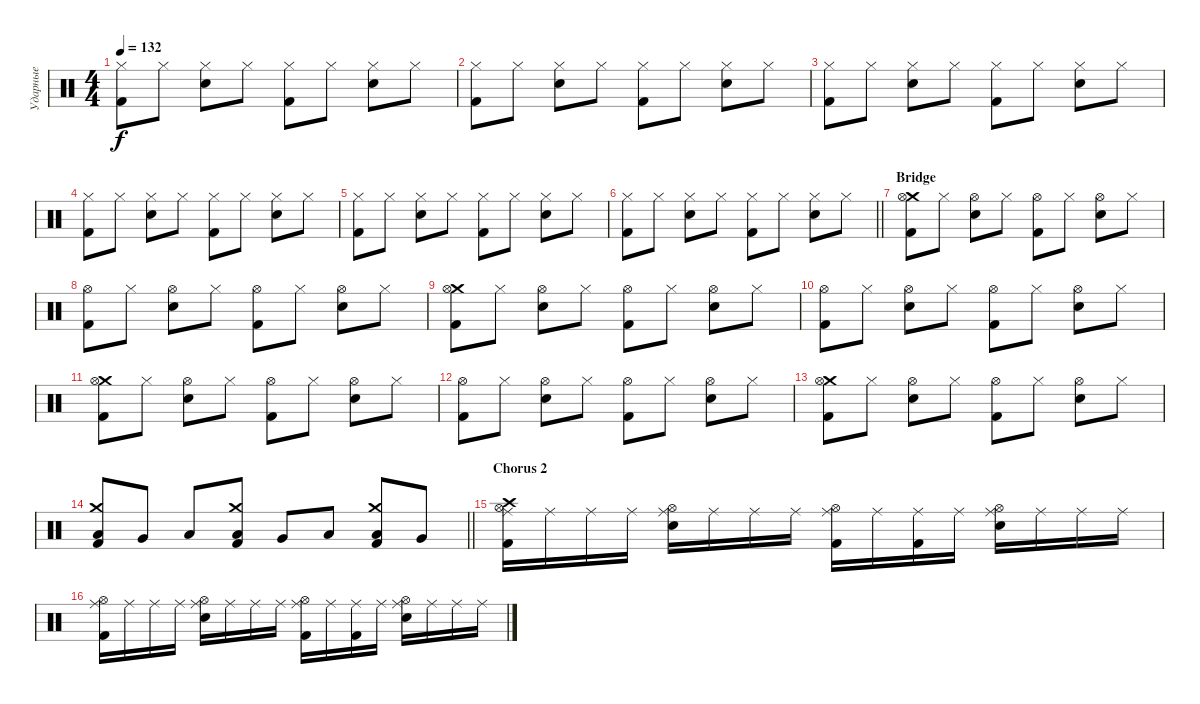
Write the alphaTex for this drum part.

\track ("Ударные" "Ударные") {instrument percussion}
\staff {score}
\articulation defaults
\ts (4 4)
\tempo 132
\clef neutral
\ks c
("Hi-Hat (closed)" "Kick (hit) 2").8{dy f} "Hi-Hat (closed)".8 ("Hi-Hat (closed)" "Snare (hit) 2").8 "Hi-Hat (closed)".8 ("Hi-Hat (closed)" "Kick (hit) 2").8 "Hi-Hat (closed)".8 ("Hi-Hat (closed)" "Snare (hit) 2").8 "Hi-Hat (closed)".8 |
("Hi-Hat (closed)" "Kick (hit) 2").8 "Hi-Hat (closed)".8 ("Hi-Hat (closed)" "Snare (hit) 2").8 "Hi-Hat (closed)".8 ("Hi-Hat (closed)" "Kick (hit) 2").8 "Hi-Hat (closed)".8 ("Hi-Hat (closed)" "Snare (hit) 2").8 "Hi-Hat (closed)".8 |
("Hi-Hat (closed)" "Kick (hit) 2").8 "Hi-Hat (closed)".8 ("Hi-Hat (closed)" "Snare (hit) 2").8 "Hi-Hat (closed)".8 ("Hi-Hat (closed)" "Kick (hit) 2").8 "Hi-Hat (closed)".8 ("Hi-Hat (closed)" "Snare (hit) 2").8 "Hi-Hat (closed)".8 |
("Hi-Hat (closed)" "Kick (hit) 2").8 "Hi-Hat (closed)".8 ("Hi-Hat (closed)" "Snare (hit) 2").8 "Hi-Hat (closed)".8 ("Hi-Hat (closed)" "Kick (hit) 2").8 "Hi-Hat (closed)".8 ("Hi-Hat (closed)" "Snare (hit) 2").8 "Hi-Hat (closed)".8 |
("Hi-Hat (closed)" "Kick (hit) 2").8 "Hi-Hat (closed)".8 ("Hi-Hat (closed)" "Snare (hit) 2").8 "Hi-Hat (closed)".8 ("Hi-Hat (closed)" "Kick (hit) 2").8 "Hi-Hat (closed)".8 ("Hi-Hat (closed)" "Snare (hit) 2").8 "Hi-Hat (closed)".8 |
\barLineRight lightlight
("Hi-Hat (closed)" "Kick (hit) 2").8 "Hi-Hat (closed)".8 ("Hi-Hat (closed)" "Snare (hit) 2").8 "Hi-Hat (closed)".8 ("Hi-Hat (closed)" "Kick (hit) 2").8 "Hi-Hat (closed)".8 ("Hi-Hat (closed)" "Snare (hit) 2").8 "Hi-Hat (closed)".8 |
\section ("" "Bridge")
("Crash medium (hit)" "Hi-Hat (open)" "Kick (hit) 2").8 "Hi-Hat (closed)".8 ("Hi-Hat (open)" "Snare (hit) 2").8 "Hi-Hat (closed)".8 ("Hi-Hat (open)" "Kick (hit) 2").8 "Hi-Hat (closed)".8 ("Hi-Hat (open)" "Snare (hit) 2").8 "Hi-Hat (closed)".8 |
("Hi-Hat (open)" "Kick (hit) 2").8 "Hi-Hat (closed)".8 ("Hi-Hat (open)" "Snare (hit) 2").8 "Hi-Hat (closed)".8 ("Hi-Hat (open)" "Kick (hit) 2").8 "Hi-Hat (closed)".8 ("Hi-Hat (open)" "Snare (hit) 2").8 "Hi-Hat (closed)".8 |
("Crash medium (hit)" "Hi-Hat (open)" "Kick (hit) 2").8 "Hi-Hat (closed)".8 ("Hi-Hat (open)" "Snare (hit) 2").8 "Hi-Hat (closed)".8 ("Hi-Hat (open)" "Kick (hit) 2").8 "Hi-Hat (closed)".8 ("Hi-Hat (open)" "Snare (hit) 2").8 "Hi-Hat (closed)".8 |
("Hi-Hat (open)" "Kick (hit) 2").8 "Hi-Hat (closed)".8 ("Hi-Hat (open)" "Snare (hit) 2").8 "Hi-Hat (closed)".8 ("Hi-Hat (open)" "Kick (hit) 2").8 "Hi-Hat (closed)".8 ("Hi-Hat (open)" "Snare (hit) 2").8 "Hi-Hat (closed)".8 |
("Crash medium (hit)" "Hi-Hat (open)" "Kick (hit) 2").8 "Hi-Hat (closed)".8 ("Hi-Hat (open)" "Snare (hit) 2").8 "Hi-Hat (closed)".8 ("Hi-Hat (open)" "Kick (hit) 2").8 "Hi-Hat (closed)".8 ("Hi-Hat (open)" "Snare (hit) 2").8 "Hi-Hat (closed)".8 |
("Hi-Hat (open)" "Kick (hit) 2").8 "Hi-Hat (closed)".8 ("Hi-Hat (open)" "Snare (hit) 2").8 "Hi-Hat (closed)".8 ("Hi-Hat (open)" "Kick (hit) 2").8 "Hi-Hat (closed)".8 ("Hi-Hat (open)" "Snare (hit) 2").8 "Hi-Hat (closed)".8 |
("Crash medium (hit)" "Hi-Hat (open)" "Kick (hit) 2").8 "Hi-Hat (closed)".8 ("Hi-Hat (open)" "Snare (hit) 2").8 "Hi-Hat (closed)".8 ("Hi-Hat (open)" "Kick (hit) 2").8 "Hi-Hat (closed)".8 ("Hi-Hat (open)" "Snare (hit) 2").8 "Hi-Hat (closed)".8 |
\barLineRight lightlight
("Crash medium (hit)" "Low Tom (hit)" "Kick (hit) 2").8 "Very Low Tom (hit)".8 "Low Floor Tom (hit)".8 ("Crash medium (hit)" "Low Tom (hit)" "Kick (hit) 2").8 "Very Low Tom (hit)".8 "Low Floor Tom (hit)".8 ("Crash medium (hit)" "Low Tom (hit)" "Kick (hit) 2").8 "Very Low Tom (hit)".8 |
\section ("" "Chorus 2")
("Crash high (hit)" "Hi-Hat (open)" "Ride (middle)" "Kick (hit) 2").16 "Ride (middle)".16 "Ride (middle)".16 "Ride (middle)".16 ("Hi-Hat (open)" "Ride (middle)" "Snare (hit) 2").16 "Ride (middle)".16 "Ride (middle)".16 "Ride (middle)".16 ("Hi-Hat (open)" "Ride (middle)" "Kick (hit) 2").16 "Ride (middle)".16 ("Ride (middle)" "Kick (hit) 2").16 "Ride (middle)".16 ("Hi-Hat (open)" "Ride (middle)" "Snare (hit) 2").16 "Ride (middle)".16 "Ride (middle)".16 "Ride (middle)".16 |
("Hi-Hat (open)" "Ride (middle)" "Kick (hit) 2").16 "Ride (middle)".16 "Ride (middle)".16 "Ride (middle)".16 ("Hi-Hat (open)" "Ride (middle)" "Snare (hit) 2").16 "Ride (middle)".16 "Ride (middle)".16 "Ride (middle)".16 ("Hi-Hat (open)" "Ride (middle)" "Kick (hit) 2").16 "Ride (middle)".16 ("Ride (middle)" "Kick (hit) 2").16 "Ride (middle)".16 ("Hi-Hat (open)" "Ride (middle)" "Snare (hit) 2").16 "Ride (middle)".16 "Ride (middle)".16 "Ride (middle)".16
